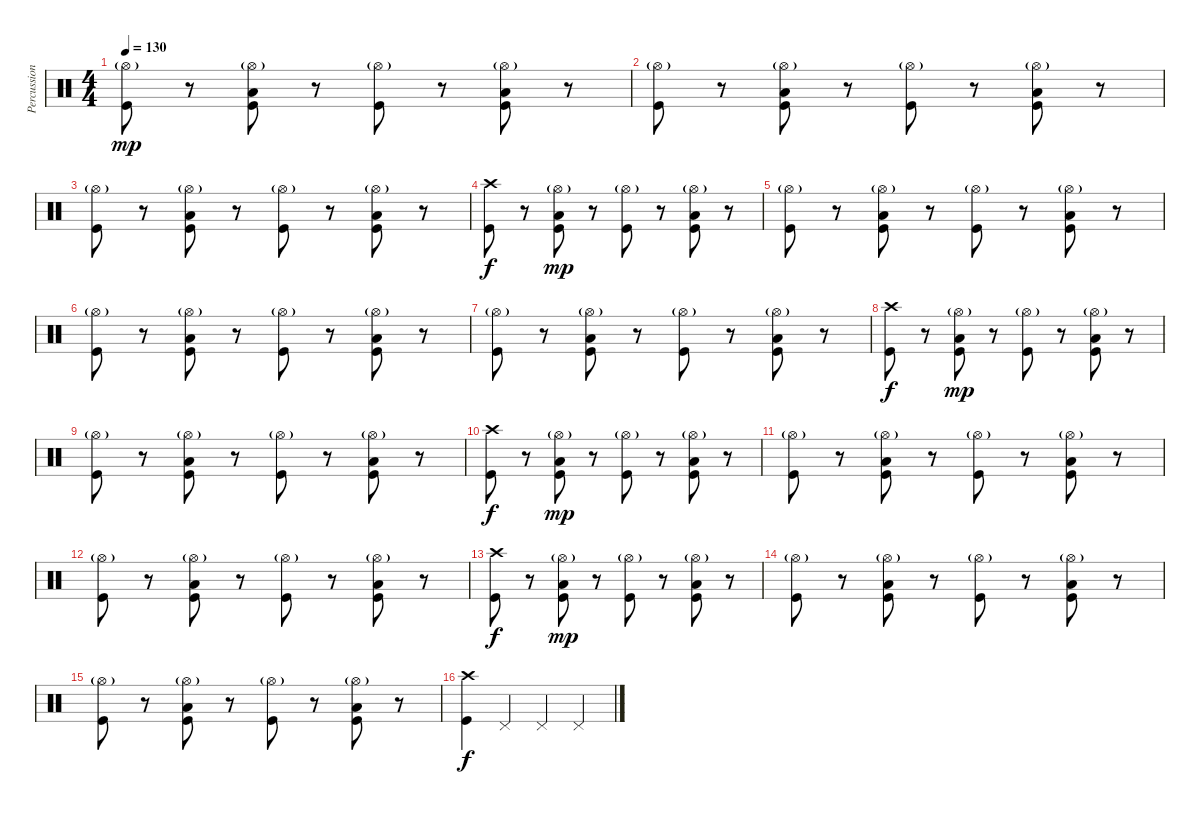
\track ("Percussion" "Percussion") {instrument percussion}
\staff {score}
\articulation defaults
\ts (4 4)
\tempo 130
\clef neutral
\ks c
("Hi-Hat (open)"{g} "Kick (hit)").8{dy mp} r.8 ("Hi-Hat (open)"{g} "Low Tom (hit)" "Kick (hit)").8 r.8 ("Hi-Hat (open)"{g} "Kick (hit)").8 r.8 ("Hi-Hat (open)"{g} "Low Tom (hit)" "Kick (hit)").8 r.8 |
("Hi-Hat (open)"{g} "Kick (hit)").8 r.8 ("Hi-Hat (open)"{g} "Low Tom (hit)" "Kick (hit)").8 r.8 ("Hi-Hat (open)"{g} "Kick (hit)").8 r.8 ("Hi-Hat (open)"{g} "Low Tom (hit)" "Kick (hit)").8 r.8 |
("Hi-Hat (open)"{g} "Kick (hit)").8 r.8 ("Hi-Hat (open)"{g} "Low Tom (hit)" "Kick (hit)").8 r.8 ("Hi-Hat (open)"{g} "Kick (hit)").8 r.8 ("Hi-Hat (open)"{g} "Low Tom (hit)" "Kick (hit)").8 r.8 |
("Crash high (hit)" "Kick (hit)").8{dy f} r.8 ("Hi-Hat (open)"{g} "Low Tom (hit)" "Kick (hit)").8{dy mp} r.8 ("Hi-Hat (open)"{g} "Kick (hit)").8 r.8 ("Hi-Hat (open)"{g} "Low Tom (hit)" "Kick (hit)").8 r.8 |
("Hi-Hat (open)"{g} "Kick (hit)").8 r.8 ("Hi-Hat (open)"{g} "Low Tom (hit)" "Kick (hit)").8 r.8 ("Hi-Hat (open)"{g} "Kick (hit)").8 r.8 ("Hi-Hat (open)"{g} "Low Tom (hit)" "Kick (hit)").8 r.8 |
("Hi-Hat (open)"{g} "Kick (hit)").8 r.8 ("Hi-Hat (open)"{g} "Low Tom (hit)" "Kick (hit)").8 r.8 ("Hi-Hat (open)"{g} "Kick (hit)").8 r.8 ("Hi-Hat (open)"{g} "Low Tom (hit)" "Kick (hit)").8 r.8 |
("Hi-Hat (open)"{g} "Kick (hit)").8 r.8 ("Hi-Hat (open)"{g} "Low Tom (hit)" "Kick (hit)").8 r.8 ("Hi-Hat (open)"{g} "Kick (hit)").8 r.8 ("Hi-Hat (open)"{g} "Low Tom (hit)" "Kick (hit)").8 r.8 |
("Crash high (hit)" "Kick (hit)").8{dy f} r.8 ("Hi-Hat (open)"{g} "Low Tom (hit)" "Kick (hit)").8{dy mp} r.8 ("Hi-Hat (open)"{g} "Kick (hit)").8 r.8 ("Hi-Hat (open)"{g} "Low Tom (hit)" "Kick (hit)").8 r.8 |
("Hi-Hat (open)"{g} "Kick (hit)").8 r.8 ("Hi-Hat (open)"{g} "Low Tom (hit)" "Kick (hit)").8 r.8 ("Hi-Hat (open)"{g} "Kick (hit)").8 r.8 ("Hi-Hat (open)"{g} "Low Tom (hit)" "Kick (hit)").8 r.8 |
("Crash high (hit)" "Kick (hit)").8{dy f} r.8 ("Hi-Hat (open)"{g} "Low Tom (hit)" "Kick (hit)").8{dy mp} r.8 ("Hi-Hat (open)"{g} "Kick (hit)").8 r.8 ("Hi-Hat (open)"{g} "Low Tom (hit)" "Kick (hit)").8 r.8 |
("Hi-Hat (open)"{g} "Kick (hit)").8 r.8 ("Hi-Hat (open)"{g} "Low Tom (hit)" "Kick (hit)").8 r.8 ("Hi-Hat (open)"{g} "Kick (hit)").8 r.8 ("Hi-Hat (open)"{g} "Low Tom (hit)" "Kick (hit)").8 r.8 |
("Hi-Hat (open)"{g} "Kick (hit)").8 r.8 ("Hi-Hat (open)"{g} "Low Tom (hit)" "Kick (hit)").8 r.8 ("Hi-Hat (open)"{g} "Kick (hit)").8 r.8 ("Hi-Hat (open)"{g} "Low Tom (hit)" "Kick (hit)").8 r.8 |
("Crash high (hit)" "Kick (hit)").8{dy f} r.8 ("Hi-Hat (open)"{g} "Low Tom (hit)" "Kick (hit)").8{dy mp} r.8 ("Hi-Hat (open)"{g} "Kick (hit)").8 r.8 ("Hi-Hat (open)"{g} "Low Tom (hit)" "Kick (hit)").8 r.8 |
("Hi-Hat (open)"{g} "Kick (hit)").8 r.8 ("Hi-Hat (open)"{g} "Low Tom (hit)" "Kick (hit)").8 r.8 ("Hi-Hat (open)"{g} "Kick (hit)").8 r.8 ("Hi-Hat (open)"{g} "Low Tom (hit)" "Kick (hit)").8 r.8 |
("Hi-Hat (open)"{g} "Kick (hit)").8 r.8 ("Hi-Hat (open)"{g} "Low Tom (hit)" "Kick (hit)").8 r.8 ("Hi-Hat (open)"{g} "Kick (hit)").8 r.8 ("Hi-Hat (open)"{g} "Low Tom (hit)" "Kick (hit)").8 r.8 |
("Crash high (hit)" "Kick (hit)").4{dy f} "Pedal Hi-Hat (hit)".4 "Pedal Hi-Hat (hit)".4 "Pedal Hi-Hat (hit)".4
